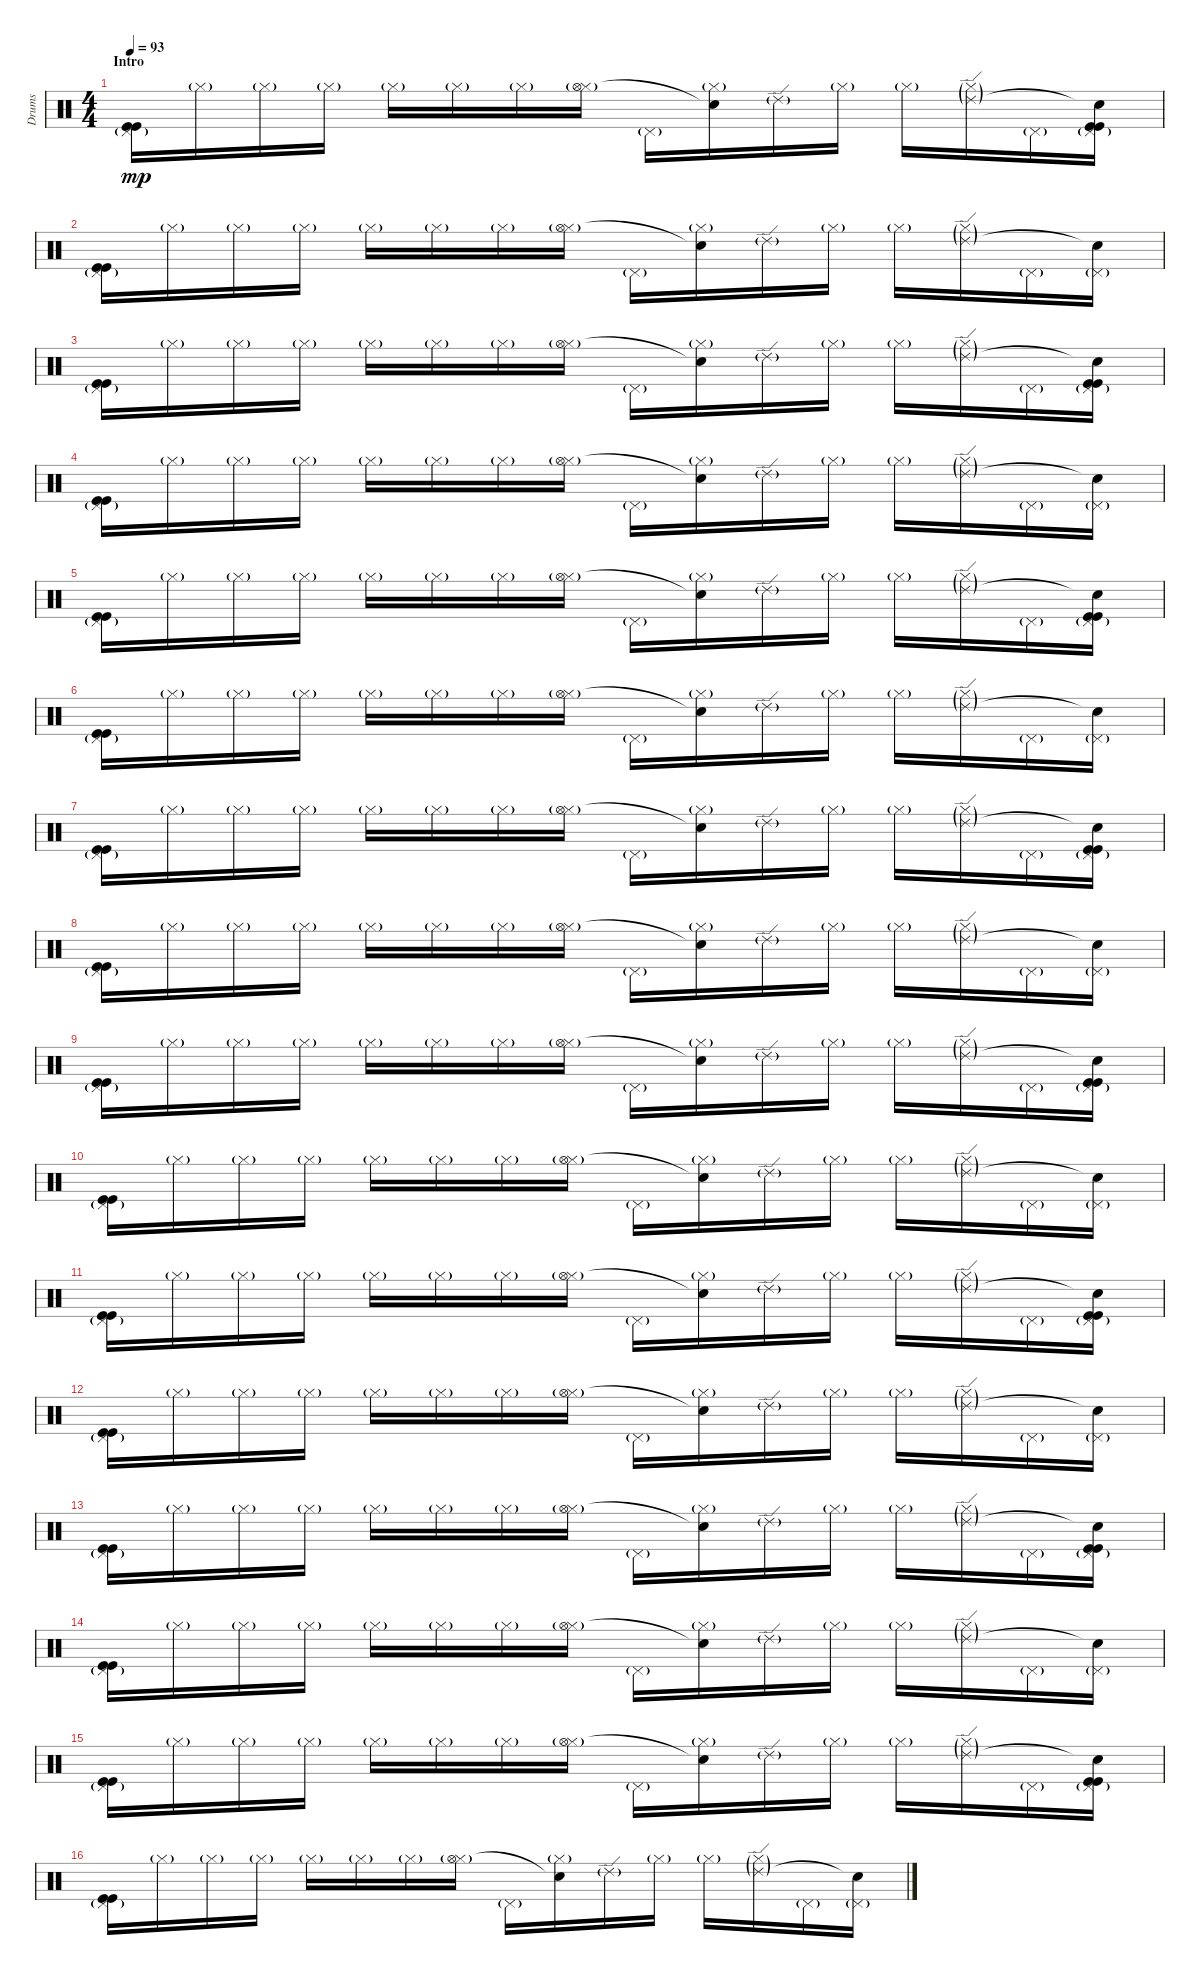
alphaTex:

\track ("Drums " "Drums ") {instrument percussion}
\staff {score}
\articulation defaults
\ts (4 4)
\section ("" "Intro")
\tempo 93
\clef neutral
\ks c
("Pedal Hi-Hat (hit)"{g} "Kick (hit)" "Kick (hit)").16{dy mp} "Hi-Hat (closed)"{g}.16 "Hi-Hat (closed)"{g}.16 "Hi-Hat (closed)"{g}.16 "Hi-Hat (closed)"{g}.16 "Hi-Hat (closed)"{g}.16 "Hi-Hat (closed)"{g}.16 ("Hi-Hat (closed)"{g} "Hi-Hat (open)"{g}).16 "Pedal Hi-Hat (hit)"{g}.16 ("Hi-Hat (closed)"{g} "Snare (hit)"{t}).16 "Ride (edge) 2"{g}.16 "Hi-Hat (closed)"{g}.16 "Hi-Hat (closed)"{g}.16 ("Hi-Hat (closed)"{g} "Ride (edge) 2"{g}).16 "Pedal Hi-Hat (hit)"{g}.16 ("Pedal Hi-Hat (hit)"{g} "Snare (hit)"{t} "Kick (hit)" "Kick (hit)").16 |
("Pedal Hi-Hat (hit)"{g} "Kick (hit)" "Kick (hit)").16 "Hi-Hat (closed)"{g}.16 "Hi-Hat (closed)"{g}.16 "Hi-Hat (closed)"{g}.16 "Hi-Hat (closed)"{g}.16 "Hi-Hat (closed)"{g}.16 "Hi-Hat (closed)"{g}.16 ("Hi-Hat (closed)"{g} "Hi-Hat (open)"{g}).16 "Pedal Hi-Hat (hit)"{g}.16 ("Hi-Hat (closed)"{g} "Snare (hit)"{t}).16 "Ride (edge) 2"{g}.16 "Hi-Hat (closed)"{g}.16 "Hi-Hat (closed)"{g}.16 ("Hi-Hat (closed)"{g} "Ride (edge) 2"{g}).16 "Pedal Hi-Hat (hit)"{g}.16 ("Pedal Hi-Hat (hit)"{g} "Snare (hit)"{t}).16 |
("Pedal Hi-Hat (hit)"{g} "Kick (hit)" "Kick (hit)").16 "Hi-Hat (closed)"{g}.16 "Hi-Hat (closed)"{g}.16 "Hi-Hat (closed)"{g}.16 "Hi-Hat (closed)"{g}.16 "Hi-Hat (closed)"{g}.16 "Hi-Hat (closed)"{g}.16 ("Hi-Hat (closed)"{g} "Hi-Hat (open)"{g}).16 "Pedal Hi-Hat (hit)"{g}.16 ("Hi-Hat (closed)"{g} "Snare (hit)"{t}).16 "Ride (edge) 2"{g}.16 "Hi-Hat (closed)"{g}.16 "Hi-Hat (closed)"{g}.16 ("Hi-Hat (closed)"{g} "Ride (edge) 2"{g}).16 "Pedal Hi-Hat (hit)"{g}.16 ("Pedal Hi-Hat (hit)"{g} "Snare (hit)"{t} "Kick (hit)" "Kick (hit)").16 |
("Pedal Hi-Hat (hit)"{g} "Kick (hit)" "Kick (hit)").16 "Hi-Hat (closed)"{g}.16 "Hi-Hat (closed)"{g}.16 "Hi-Hat (closed)"{g}.16 "Hi-Hat (closed)"{g}.16 "Hi-Hat (closed)"{g}.16 "Hi-Hat (closed)"{g}.16 ("Hi-Hat (closed)"{g} "Hi-Hat (open)"{g}).16 "Pedal Hi-Hat (hit)"{g}.16 ("Hi-Hat (closed)"{g} "Snare (hit)"{t}).16 "Ride (edge) 2"{g}.16 "Hi-Hat (closed)"{g}.16 "Hi-Hat (closed)"{g}.16 ("Hi-Hat (closed)"{g} "Ride (edge) 2"{g}).16 "Pedal Hi-Hat (hit)"{g}.16 ("Pedal Hi-Hat (hit)"{g} "Snare (hit)"{t}).16 |
("Pedal Hi-Hat (hit)"{g} "Kick (hit)" "Kick (hit)").16 "Hi-Hat (closed)"{g}.16 "Hi-Hat (closed)"{g}.16 "Hi-Hat (closed)"{g}.16 "Hi-Hat (closed)"{g}.16 "Hi-Hat (closed)"{g}.16 "Hi-Hat (closed)"{g}.16 ("Hi-Hat (closed)"{g} "Hi-Hat (open)"{g}).16 "Pedal Hi-Hat (hit)"{g}.16 ("Hi-Hat (closed)"{g} "Snare (hit)"{t}).16 "Ride (edge) 2"{g}.16 "Hi-Hat (closed)"{g}.16 "Hi-Hat (closed)"{g}.16 ("Hi-Hat (closed)"{g} "Ride (edge) 2"{g}).16 "Pedal Hi-Hat (hit)"{g}.16 ("Pedal Hi-Hat (hit)"{g} "Snare (hit)"{t} "Kick (hit)" "Kick (hit)").16 |
("Pedal Hi-Hat (hit)"{g} "Kick (hit)" "Kick (hit)").16 "Hi-Hat (closed)"{g}.16 "Hi-Hat (closed)"{g}.16 "Hi-Hat (closed)"{g}.16 "Hi-Hat (closed)"{g}.16 "Hi-Hat (closed)"{g}.16 "Hi-Hat (closed)"{g}.16 ("Hi-Hat (closed)"{g} "Hi-Hat (open)"{g}).16 "Pedal Hi-Hat (hit)"{g}.16 ("Hi-Hat (closed)"{g} "Snare (hit)"{t}).16 "Ride (edge) 2"{g}.16 "Hi-Hat (closed)"{g}.16 "Hi-Hat (closed)"{g}.16 ("Hi-Hat (closed)"{g} "Ride (edge) 2"{g}).16 "Pedal Hi-Hat (hit)"{g}.16 ("Pedal Hi-Hat (hit)"{g} "Snare (hit)"{t}).16 |
("Pedal Hi-Hat (hit)"{g} "Kick (hit)" "Kick (hit)").16 "Hi-Hat (closed)"{g}.16 "Hi-Hat (closed)"{g}.16 "Hi-Hat (closed)"{g}.16 "Hi-Hat (closed)"{g}.16 "Hi-Hat (closed)"{g}.16 "Hi-Hat (closed)"{g}.16 ("Hi-Hat (closed)"{g} "Hi-Hat (open)"{g}).16 "Pedal Hi-Hat (hit)"{g}.16 ("Hi-Hat (closed)"{g} "Snare (hit)"{t}).16 "Ride (edge) 2"{g}.16 "Hi-Hat (closed)"{g}.16 "Hi-Hat (closed)"{g}.16 ("Hi-Hat (closed)"{g} "Ride (edge) 2"{g}).16 "Pedal Hi-Hat (hit)"{g}.16 ("Pedal Hi-Hat (hit)"{g} "Snare (hit)"{t} "Kick (hit)" "Kick (hit)").16 |
("Pedal Hi-Hat (hit)"{g} "Kick (hit)" "Kick (hit)").16 "Hi-Hat (closed)"{g}.16 "Hi-Hat (closed)"{g}.16 "Hi-Hat (closed)"{g}.16 "Hi-Hat (closed)"{g}.16 "Hi-Hat (closed)"{g}.16 "Hi-Hat (closed)"{g}.16 ("Hi-Hat (closed)"{g} "Hi-Hat (open)"{g}).16 "Pedal Hi-Hat (hit)"{g}.16 ("Hi-Hat (closed)"{g} "Snare (hit)"{t}).16 "Ride (edge) 2"{g}.16 "Hi-Hat (closed)"{g}.16 "Hi-Hat (closed)"{g}.16 ("Hi-Hat (closed)"{g} "Ride (edge) 2"{g}).16 "Pedal Hi-Hat (hit)"{g}.16 ("Pedal Hi-Hat (hit)"{g} "Snare (hit)"{t}).16 |
("Pedal Hi-Hat (hit)"{g} "Kick (hit)" "Kick (hit)").16 "Hi-Hat (closed)"{g}.16 "Hi-Hat (closed)"{g}.16 "Hi-Hat (closed)"{g}.16 "Hi-Hat (closed)"{g}.16 "Hi-Hat (closed)"{g}.16 "Hi-Hat (closed)"{g}.16 ("Hi-Hat (closed)"{g} "Hi-Hat (open)"{g}).16 "Pedal Hi-Hat (hit)"{g}.16 ("Hi-Hat (closed)"{g} "Snare (hit)"{t}).16 "Ride (edge) 2"{g}.16 "Hi-Hat (closed)"{g}.16 "Hi-Hat (closed)"{g}.16 ("Hi-Hat (closed)"{g} "Ride (edge) 2"{g}).16 "Pedal Hi-Hat (hit)"{g}.16 ("Pedal Hi-Hat (hit)"{g} "Snare (hit)"{t} "Kick (hit)" "Kick (hit)").16 |
("Pedal Hi-Hat (hit)"{g} "Kick (hit)" "Kick (hit)").16 "Hi-Hat (closed)"{g}.16 "Hi-Hat (closed)"{g}.16 "Hi-Hat (closed)"{g}.16 "Hi-Hat (closed)"{g}.16 "Hi-Hat (closed)"{g}.16 "Hi-Hat (closed)"{g}.16 ("Hi-Hat (closed)"{g} "Hi-Hat (open)"{g}).16 "Pedal Hi-Hat (hit)"{g}.16 ("Hi-Hat (closed)"{g} "Snare (hit)"{t}).16 "Ride (edge) 2"{g}.16 "Hi-Hat (closed)"{g}.16 "Hi-Hat (closed)"{g}.16 ("Hi-Hat (closed)"{g} "Ride (edge) 2"{g}).16 "Pedal Hi-Hat (hit)"{g}.16 ("Pedal Hi-Hat (hit)"{g} "Snare (hit)"{t}).16 |
("Pedal Hi-Hat (hit)"{g} "Kick (hit)" "Kick (hit)").16 "Hi-Hat (closed)"{g}.16 "Hi-Hat (closed)"{g}.16 "Hi-Hat (closed)"{g}.16 "Hi-Hat (closed)"{g}.16 "Hi-Hat (closed)"{g}.16 "Hi-Hat (closed)"{g}.16 ("Hi-Hat (closed)"{g} "Hi-Hat (open)"{g}).16 "Pedal Hi-Hat (hit)"{g}.16 ("Hi-Hat (closed)"{g} "Snare (hit)"{t}).16 "Ride (edge) 2"{g}.16 "Hi-Hat (closed)"{g}.16 "Hi-Hat (closed)"{g}.16 ("Hi-Hat (closed)"{g} "Ride (edge) 2"{g}).16 "Pedal Hi-Hat (hit)"{g}.16 ("Pedal Hi-Hat (hit)"{g} "Snare (hit)"{t} "Kick (hit)" "Kick (hit)").16 |
("Pedal Hi-Hat (hit)"{g} "Kick (hit)" "Kick (hit)").16 "Hi-Hat (closed)"{g}.16 "Hi-Hat (closed)"{g}.16 "Hi-Hat (closed)"{g}.16 "Hi-Hat (closed)"{g}.16 "Hi-Hat (closed)"{g}.16 "Hi-Hat (closed)"{g}.16 ("Hi-Hat (closed)"{g} "Hi-Hat (open)"{g}).16 "Pedal Hi-Hat (hit)"{g}.16 ("Hi-Hat (closed)"{g} "Snare (hit)"{t}).16 "Ride (edge) 2"{g}.16 "Hi-Hat (closed)"{g}.16 "Hi-Hat (closed)"{g}.16 ("Hi-Hat (closed)"{g} "Ride (edge) 2"{g}).16 "Pedal Hi-Hat (hit)"{g}.16 ("Pedal Hi-Hat (hit)"{g} "Snare (hit)"{t}).16 |
("Pedal Hi-Hat (hit)"{g} "Kick (hit)" "Kick (hit)").16 "Hi-Hat (closed)"{g}.16 "Hi-Hat (closed)"{g}.16 "Hi-Hat (closed)"{g}.16 "Hi-Hat (closed)"{g}.16 "Hi-Hat (closed)"{g}.16 "Hi-Hat (closed)"{g}.16 ("Hi-Hat (closed)"{g} "Hi-Hat (open)"{g}).16 "Pedal Hi-Hat (hit)"{g}.16 ("Hi-Hat (closed)"{g} "Snare (hit)"{t}).16 "Ride (edge) 2"{g}.16 "Hi-Hat (closed)"{g}.16 "Hi-Hat (closed)"{g}.16 ("Hi-Hat (closed)"{g} "Ride (edge) 2"{g}).16 "Pedal Hi-Hat (hit)"{g}.16 ("Pedal Hi-Hat (hit)"{g} "Snare (hit)"{t} "Kick (hit)" "Kick (hit)").16 |
("Pedal Hi-Hat (hit)"{g} "Kick (hit)" "Kick (hit)").16 "Hi-Hat (closed)"{g}.16 "Hi-Hat (closed)"{g}.16 "Hi-Hat (closed)"{g}.16 "Hi-Hat (closed)"{g}.16 "Hi-Hat (closed)"{g}.16 "Hi-Hat (closed)"{g}.16 ("Hi-Hat (closed)"{g} "Hi-Hat (open)"{g}).16 "Pedal Hi-Hat (hit)"{g}.16 ("Hi-Hat (closed)"{g} "Snare (hit)"{t}).16 "Ride (edge) 2"{g}.16 "Hi-Hat (closed)"{g}.16 "Hi-Hat (closed)"{g}.16 ("Hi-Hat (closed)"{g} "Ride (edge) 2"{g}).16 "Pedal Hi-Hat (hit)"{g}.16 ("Pedal Hi-Hat (hit)"{g} "Snare (hit)"{t}).16 |
("Pedal Hi-Hat (hit)"{g} "Kick (hit)" "Kick (hit)").16 "Hi-Hat (closed)"{g}.16 "Hi-Hat (closed)"{g}.16 "Hi-Hat (closed)"{g}.16 "Hi-Hat (closed)"{g}.16 "Hi-Hat (closed)"{g}.16 "Hi-Hat (closed)"{g}.16 ("Hi-Hat (closed)"{g} "Hi-Hat (open)"{g}).16 "Pedal Hi-Hat (hit)"{g}.16 ("Hi-Hat (closed)"{g} "Snare (hit)"{t}).16 "Ride (edge) 2"{g}.16 "Hi-Hat (closed)"{g}.16 "Hi-Hat (closed)"{g}.16 ("Hi-Hat (closed)"{g} "Ride (edge) 2"{g}).16 "Pedal Hi-Hat (hit)"{g}.16 ("Pedal Hi-Hat (hit)"{g} "Snare (hit)"{t} "Kick (hit)" "Kick (hit)").16 |
("Pedal Hi-Hat (hit)"{g} "Kick (hit)" "Kick (hit)").16 "Hi-Hat (closed)"{g}.16 "Hi-Hat (closed)"{g}.16 "Hi-Hat (closed)"{g}.16 "Hi-Hat (closed)"{g}.16 "Hi-Hat (closed)"{g}.16 "Hi-Hat (closed)"{g}.16 ("Hi-Hat (closed)"{g} "Hi-Hat (open)"{g}).16 "Pedal Hi-Hat (hit)"{g}.16 ("Hi-Hat (closed)"{g} "Snare (hit)"{t}).16 "Ride (edge) 2"{g}.16 "Hi-Hat (closed)"{g}.16 "Hi-Hat (closed)"{g}.16 ("Hi-Hat (closed)"{g} "Ride (edge) 2"{g}).16 "Pedal Hi-Hat (hit)"{g}.16 ("Pedal Hi-Hat (hit)"{g} "Snare (hit)"{t}).16
